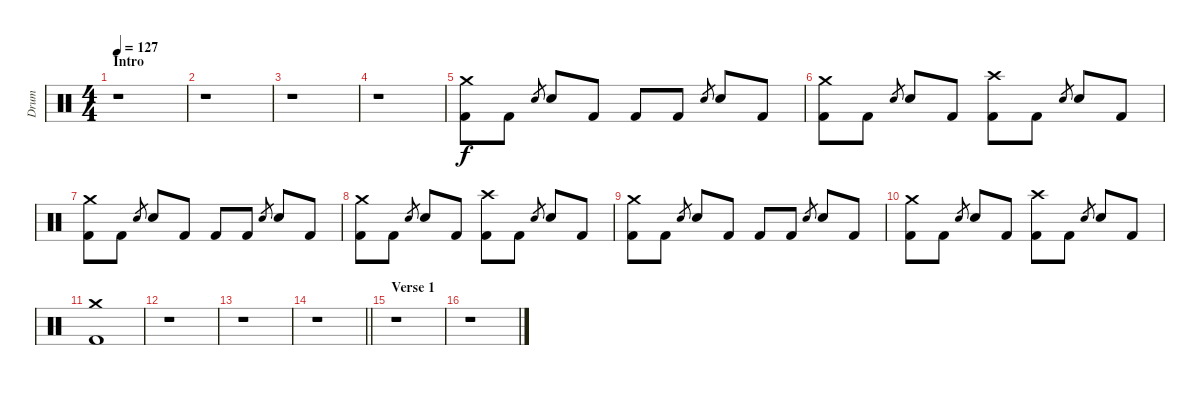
\track ("Drum" "Drum") {instrument percussion}
\staff {score}
\articulation defaults
\ts (4 4)
\section ("" "Intro")
\tempo 127
\clef neutral
\ks c
r.1{dy f} |
r.1 |
r.1 |
r.1 |
("Crash medium (hit)" "Kick (hit) 2").8 "Kick (hit) 2".8 "Electric Snare (hit)".8{gr} "Electric Snare (hit)".8 "Kick (hit) 2".8 "Kick (hit) 2".8 "Kick (hit) 2".8 "Electric Snare (hit)".8{gr} "Electric Snare (hit)".8 "Kick (hit) 2".8 |
("Crash medium (hit)" "Kick (hit) 2").8 "Kick (hit) 2".8 "Electric Snare (hit)".8{gr} "Electric Snare (hit)".8 "Kick (hit) 2".8 ("Crash high (hit)" "Kick (hit) 2").8 "Kick (hit) 2".8 "Electric Snare (hit)".8{gr} "Electric Snare (hit)".8 "Kick (hit) 2".8 |
("Crash medium (hit)" "Kick (hit) 2").8 "Kick (hit) 2".8 "Electric Snare (hit)".8{gr} "Electric Snare (hit)".8 "Kick (hit) 2".8 "Kick (hit) 2".8 "Kick (hit) 2".8 "Electric Snare (hit)".8{gr} "Electric Snare (hit)".8 "Kick (hit) 2".8 |
("Crash medium (hit)" "Kick (hit) 2").8 "Kick (hit) 2".8 "Electric Snare (hit)".8{gr} "Electric Snare (hit)".8 "Kick (hit) 2".8 ("Crash high (hit)" "Kick (hit) 2").8 "Kick (hit) 2".8 "Electric Snare (hit)".8{gr} "Electric Snare (hit)".8 "Kick (hit) 2".8 |
("Crash medium (hit)" "Kick (hit) 2").8 "Kick (hit) 2".8 "Electric Snare (hit)".8{gr} "Electric Snare (hit)".8 "Kick (hit) 2".8 "Kick (hit) 2".8 "Kick (hit) 2".8 "Electric Snare (hit)".8{gr} "Electric Snare (hit)".8 "Kick (hit) 2".8 |
("Crash medium (hit)" "Kick (hit) 2").8 "Kick (hit) 2".8 "Electric Snare (hit)".8{gr} "Electric Snare (hit)".8 "Kick (hit) 2".8 ("Crash high (hit)" "Kick (hit) 2").8 "Kick (hit) 2".8 "Electric Snare (hit)".8{gr} "Electric Snare (hit)".8 "Kick (hit) 2".8 |
("Crash medium (hit)" "Kick (hit) 2").1 |
r.1 |
r.1 |
\barLineRight lightlight
r.1 |
\section ("" "Verse 1")
r.1 |
r.1
